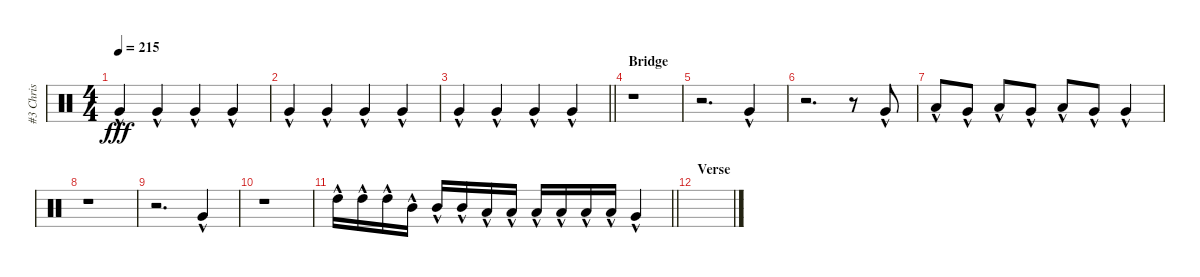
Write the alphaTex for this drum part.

\track ("#3 Chris" "#3 Chris") {instrument percussion}
\staff {score}
\articulation defaults
\ts (4 4)
\tempo 215
\clef neutral
\ks c "Very Low Tom (hit)"{hac}.4{dy fff} "Very Low Tom (hit)"{hac}.4 "Very Low Tom (hit)"{hac}.4 "Very Low Tom (hit)"{hac}.4
|
"Very Low Tom (hit)"{hac}.4 "Very Low Tom (hit)"{hac}.4 "Very Low Tom (hit)"{hac}.4 "Very Low Tom (hit)"{hac}.4 |
\barLineRight lightlight "Very Low Tom (hit)"{hac}.4 "Very Low Tom (hit)"{hac}.4 "Very Low Tom (hit)"{hac}.4 "Very Low Tom (hit)"{hac}.4
|
\section ("" "Bridge")
r.1 |
r.2{d} "Very Low Tom (hit)"{hac}.4 |
r.2{d} r.8 "Very Low Tom (hit)"{hac}.8 |
"Low Floor Tom (hit)"{hac}.8 "Very Low Tom (hit)"{hac}.8 "Low Floor Tom (hit)"{hac}.8 "Very Low Tom (hit)"{hac}.8 "Low Floor Tom (hit)"{hac}.8 "Very Low Tom (hit)"{hac}.8 "Very Low Tom (hit)"{hac}.4 |
r.1 |
r.2{d} "Very Low Tom (hit)"{hac}.4 |
r.1 |
\barLineRight lightlight "High Tom (hit)"{hac}.16 "High Tom (hit)"{hac}.16 "High Tom (hit)"{hac}.16 "Mid Tom (hit)"{hac}.16 "Mid Tom (hit)"{hac}.16 "Mid Tom (hit)"{hac}.16 "Low Tom (hit)"{hac}.16 "Low Tom (hit)"{hac}.16 "Low Tom (hit)"{hac}.16 "Low Floor Tom (hit)"{hac}.16 "Low Floor Tom (hit)"{hac}.16 "Low Floor Tom (hit)"{hac}.16 "Very Low Tom (hit)"{hac}.4
|
\section ("" "Verse")
